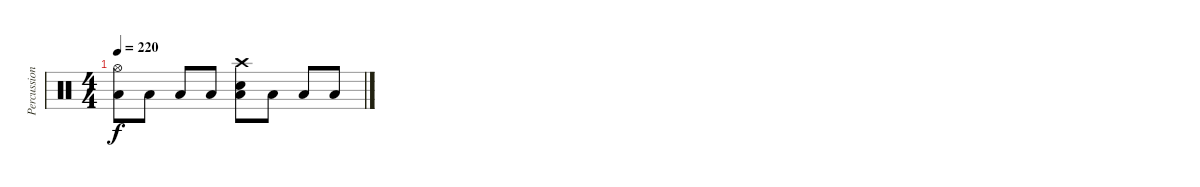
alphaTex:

\track ("Percussion" "Percussion") {instrument percussion}
\staff {score}
\articulation defaults
\ts (4 4)
\tempo 220
\clef neutral
\ks c
("Hi-Hat (open)" "Low Floor Tom (hit)").8{dy f} "Low Floor Tom (hit)".8 "Low Floor Tom (hit)".8 "Low Floor Tom (hit)".8 ("Crash high (hit)" "Snare (hit) 2" "Low Floor Tom (hit)").8 "Low Floor Tom (hit)".8 "Low Floor Tom (hit)".8 "Low Floor Tom (hit)".8
